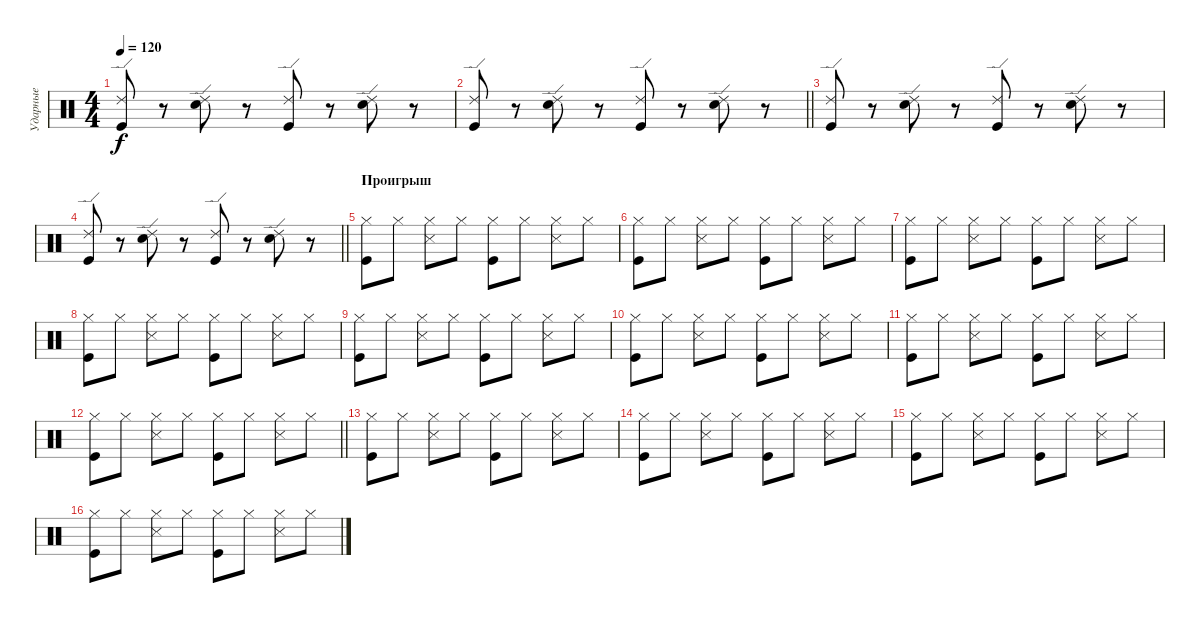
\track ("Ударные" "Ударные") {instrument percussion}
\staff {score}
\articulation defaults
\ts (4 4)
\tempo 120
\clef neutral
\ks c
("Ride (edge) 2" "Kick (hit)").8{dy f} r.8 ("Ride (edge) 2" "Electric Snare (hit)").8 r.8 ("Ride (edge) 2" "Kick (hit)").8 r.8 ("Ride (edge) 2" "Electric Snare (hit)").8 r.8 |
\barLineRight lightlight
("Ride (edge) 2" "Kick (hit)").8 r.8 ("Ride (edge) 2" "Electric Snare (hit)").8 r.8 ("Ride (edge) 2" "Kick (hit)").8 r.8 ("Ride (edge) 2" "Electric Snare (hit)").8 r.8 |
("Ride (edge) 2" "Kick (hit)").8 r.8 ("Ride (edge) 2" "Electric Snare (hit)").8 r.8 ("Ride (edge) 2" "Kick (hit)").8 r.8 ("Ride (edge) 2" "Electric Snare (hit)").8 r.8 |
\barLineRight lightlight
("Ride (edge) 2" "Kick (hit)").8 r.8 ("Ride (edge) 2" "Electric Snare (hit)").8 r.8 ("Ride (edge) 2" "Kick (hit)").8 r.8 ("Ride (edge) 2" "Electric Snare (hit)").8 r.8 |
\section ("" "Проигрыш")
("Hi-Hat (closed)" "Kick (hit)").8 "Hi-Hat (closed)".8 ("Hi-Hat (closed)" "Metronome (hit)").8 "Hi-Hat (closed)".8 ("Hi-Hat (closed)" "Kick (hit)").8 "Hi-Hat (closed)".8 ("Hi-Hat (closed)" "Metronome (hit)").8 "Hi-Hat (closed)".8 |
("Hi-Hat (closed)" "Kick (hit)").8 "Hi-Hat (closed)".8 ("Hi-Hat (closed)" "Metronome (hit)").8 "Hi-Hat (closed)".8 ("Hi-Hat (closed)" "Kick (hit)").8 "Hi-Hat (closed)".8 ("Hi-Hat (closed)" "Metronome (hit)").8 "Hi-Hat (closed)".8 |
("Hi-Hat (closed)" "Kick (hit)").8 "Hi-Hat (closed)".8 ("Hi-Hat (closed)" "Metronome (hit)").8 "Hi-Hat (closed)".8 ("Hi-Hat (closed)" "Kick (hit)").8 "Hi-Hat (closed)".8 ("Hi-Hat (closed)" "Metronome (hit)").8 "Hi-Hat (closed)".8 |
("Hi-Hat (closed)" "Kick (hit)").8 "Hi-Hat (closed)".8 ("Hi-Hat (closed)" "Metronome (hit)").8 "Hi-Hat (closed)".8 ("Hi-Hat (closed)" "Kick (hit)").8 "Hi-Hat (closed)".8 ("Hi-Hat (closed)" "Metronome (hit)").8 "Hi-Hat (closed)".8 |
("Hi-Hat (closed)" "Kick (hit)").8 "Hi-Hat (closed)".8 ("Hi-Hat (closed)" "Metronome (hit)").8 "Hi-Hat (closed)".8 ("Hi-Hat (closed)" "Kick (hit)").8 "Hi-Hat (closed)".8 ("Hi-Hat (closed)" "Metronome (hit)").8 "Hi-Hat (closed)".8 |
("Hi-Hat (closed)" "Kick (hit)").8 "Hi-Hat (closed)".8 ("Hi-Hat (closed)" "Metronome (hit)").8 "Hi-Hat (closed)".8 ("Hi-Hat (closed)" "Kick (hit)").8 "Hi-Hat (closed)".8 ("Hi-Hat (closed)" "Metronome (hit)").8 "Hi-Hat (closed)".8 |
("Hi-Hat (closed)" "Kick (hit)").8 "Hi-Hat (closed)".8 ("Hi-Hat (closed)" "Metronome (hit)").8 "Hi-Hat (closed)".8 ("Hi-Hat (closed)" "Kick (hit)").8 "Hi-Hat (closed)".8 ("Hi-Hat (closed)" "Metronome (hit)").8 "Hi-Hat (closed)".8 |
\barLineRight lightlight
("Hi-Hat (closed)" "Kick (hit)").8 "Hi-Hat (closed)".8 ("Hi-Hat (closed)" "Metronome (hit)").8 "Hi-Hat (closed)".8 ("Hi-Hat (closed)" "Kick (hit)").8 "Hi-Hat (closed)".8 ("Hi-Hat (closed)" "Metronome (hit)").8 "Hi-Hat (closed)".8 |
\section ("" " ")
("Hi-Hat (closed)" "Kick (hit)").8 "Hi-Hat (closed)".8 ("Hi-Hat (closed)" "Metronome (hit)").8 "Hi-Hat (closed)".8 ("Hi-Hat (closed)" "Kick (hit)").8 "Hi-Hat (closed)".8 ("Hi-Hat (closed)" "Metronome (hit)").8 "Hi-Hat (closed)".8 |
("Hi-Hat (closed)" "Kick (hit)").8 "Hi-Hat (closed)".8 ("Hi-Hat (closed)" "Metronome (hit)").8 "Hi-Hat (closed)".8 ("Hi-Hat (closed)" "Kick (hit)").8 "Hi-Hat (closed)".8 ("Hi-Hat (closed)" "Metronome (hit)").8 "Hi-Hat (closed)".8 |
("Hi-Hat (closed)" "Kick (hit)").8 "Hi-Hat (closed)".8 ("Hi-Hat (closed)" "Metronome (hit)").8 "Hi-Hat (closed)".8 ("Hi-Hat (closed)" "Kick (hit)").8 "Hi-Hat (closed)".8 ("Hi-Hat (closed)" "Metronome (hit)").8 "Hi-Hat (closed)".8 |
("Hi-Hat (closed)" "Kick (hit)").8 "Hi-Hat (closed)".8 ("Hi-Hat (closed)" "Metronome (hit)").8 "Hi-Hat (closed)".8 ("Hi-Hat (closed)" "Kick (hit)").8 "Hi-Hat (closed)".8 ("Hi-Hat (closed)" "Metronome (hit)").8 "Hi-Hat (closed)".8
